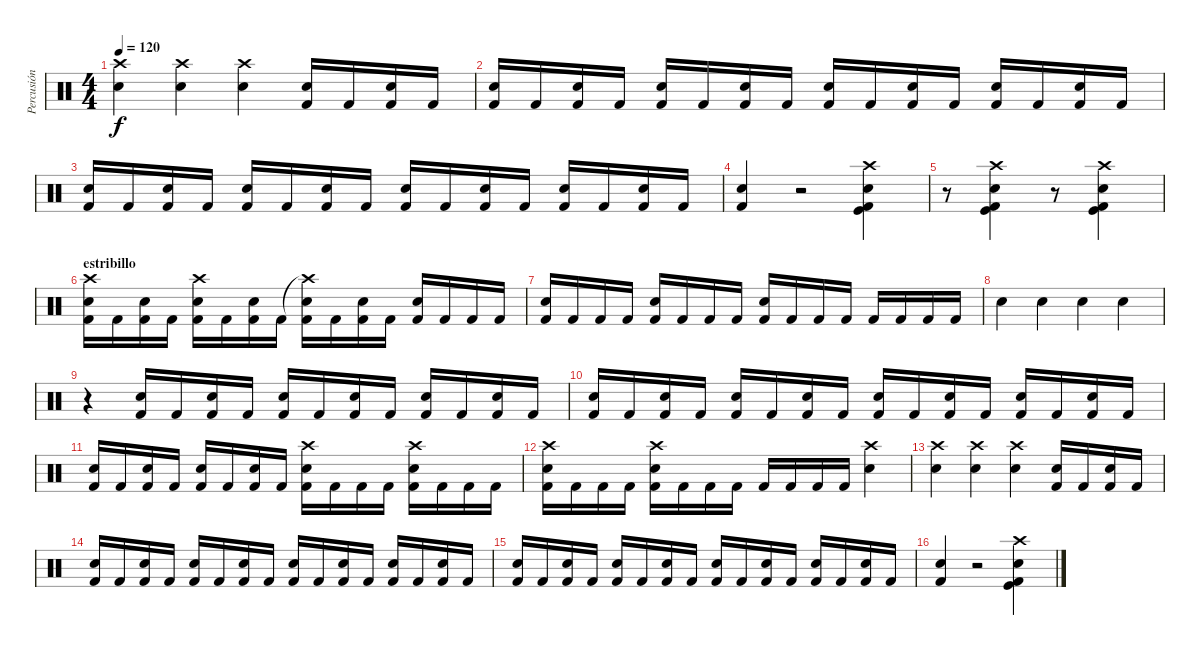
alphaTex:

\track ("Percusión" "Percusión") {instrument percussion}
\staff {score}
\articulation defaults
\ts (4 4)
\tempo 120
\clef neutral
\ks c
("Crash high (hit)" "Electric Snare (hit)").4{dy f} ("Crash high (hit)" "Electric Snare (hit)").4 ("Crash high (hit)" "Electric Snare (hit)").4 ("Kick (hit) 2" "Electric Snare (hit)").16 "Kick (hit) 2".16 ("Kick (hit) 2" "Electric Snare (hit)").16 "Kick (hit) 2".16 |
("Kick (hit) 2" "Electric Snare (hit)").16 "Kick (hit) 2".16 ("Kick (hit) 2" "Electric Snare (hit)").16 "Kick (hit) 2".16 ("Kick (hit) 2" "Electric Snare (hit)").16 "Kick (hit) 2".16 ("Kick (hit) 2" "Electric Snare (hit)").16 "Kick (hit) 2".16 ("Kick (hit) 2" "Electric Snare (hit)").16 "Kick (hit) 2".16 ("Kick (hit) 2" "Electric Snare (hit)").16 "Kick (hit) 2".16 ("Kick (hit) 2" "Electric Snare (hit)").16 "Kick (hit) 2".16 ("Kick (hit) 2" "Electric Snare (hit)").16 "Kick (hit) 2".16 |
("Kick (hit) 2" "Electric Snare (hit)").16 "Kick (hit) 2".16 ("Kick (hit) 2" "Electric Snare (hit)").16 "Kick (hit) 2".16 ("Kick (hit) 2" "Electric Snare (hit)").16 "Kick (hit) 2".16 ("Kick (hit) 2" "Electric Snare (hit)").16 "Kick (hit) 2".16 ("Kick (hit) 2" "Electric Snare (hit)").16 "Kick (hit) 2".16 ("Kick (hit) 2" "Electric Snare (hit)").16 "Kick (hit) 2".16 ("Kick (hit) 2" "Electric Snare (hit)").16 "Kick (hit) 2".16 ("Kick (hit) 2" "Electric Snare (hit)").16 "Kick (hit) 2".16 |
("Kick (hit) 2" "Electric Snare (hit)").4 r.2 ("Crash high (hit)" "Kick (hit)" "Kick (hit) 2" "Electric Snare (hit)").4 |
r.8 ("Crash high (hit)" "Kick (hit)" "Kick (hit) 2" "Electric Snare (hit)").4 r.8 ("Crash high (hit)" "Kick (hit)" "Kick (hit) 2" "Electric Snare (hit)").4 |
\section ("" "estribillo")
("Crash high (hit)" "Kick (hit) 2" "Electric Snare (hit)").16 "Kick (hit) 2".16 ("Kick (hit) 2" "Electric Snare (hit)").16 "Kick (hit) 2".16 ("Crash high (hit)" "Kick (hit) 2" "Electric Snare (hit)").16 "Kick (hit) 2".16 ("Kick (hit) 2" "Electric Snare (hit)").16 "Kick (hit) 2".16 ("Crash high (hit)"{t} "Kick (hit) 2" "Electric Snare (hit)").16 "Kick (hit) 2".16 ("Kick (hit) 2" "Electric Snare (hit)").16 "Kick (hit) 2".16 ("Kick (hit) 2" "Electric Snare (hit)").16 "Kick (hit) 2".16 "Kick (hit) 2".16 "Kick (hit) 2".16 |
("Kick (hit) 2" "Electric Snare (hit)").16 "Kick (hit) 2".16 "Kick (hit) 2".16 "Kick (hit) 2".16 ("Kick (hit) 2" "Electric Snare (hit)").16 "Kick (hit) 2".16 "Kick (hit) 2".16 "Kick (hit) 2".16 ("Kick (hit) 2" "Electric Snare (hit)").16 "Kick (hit) 2".16 "Kick (hit) 2".16 "Kick (hit) 2".16 "Kick (hit) 2".16 "Kick (hit) 2".16 "Kick (hit) 2".16 "Kick (hit) 2".16 |
"Electric Snare (hit)".4 "Electric Snare (hit)".4 "Electric Snare (hit)".4 "Electric Snare (hit)".4 |
r.4 ("Kick (hit) 2" "Electric Snare (hit)").16 "Kick (hit) 2".16 ("Kick (hit) 2" "Electric Snare (hit)").16 "Kick (hit) 2".16 ("Kick (hit) 2" "Electric Snare (hit)").16 "Kick (hit) 2".16 ("Kick (hit) 2" "Electric Snare (hit)").16 "Kick (hit) 2".16 ("Kick (hit) 2" "Electric Snare (hit)").16 "Kick (hit) 2".16 ("Kick (hit) 2" "Electric Snare (hit)").16 "Kick (hit) 2".16 |
("Kick (hit) 2" "Electric Snare (hit)").16 "Kick (hit) 2".16 ("Kick (hit) 2" "Electric Snare (hit)").16 "Kick (hit) 2".16 ("Kick (hit) 2" "Electric Snare (hit)").16 "Kick (hit) 2".16 ("Kick (hit) 2" "Electric Snare (hit)").16 "Kick (hit) 2".16 ("Kick (hit) 2" "Electric Snare (hit)").16 "Kick (hit) 2".16 ("Kick (hit) 2" "Electric Snare (hit)").16 "Kick (hit) 2".16 ("Kick (hit) 2" "Electric Snare (hit)").16 "Kick (hit) 2".16 ("Kick (hit) 2" "Electric Snare (hit)").16 "Kick (hit) 2".16 |
("Kick (hit) 2" "Electric Snare (hit)").16 "Kick (hit) 2".16 ("Kick (hit) 2" "Electric Snare (hit)").16 "Kick (hit) 2".16 ("Kick (hit) 2" "Electric Snare (hit)").16 "Kick (hit) 2".16 ("Kick (hit) 2" "Electric Snare (hit)").16 "Kick (hit) 2".16 ("Crash high (hit)" "Kick (hit) 2" "Electric Snare (hit)").16 "Kick (hit) 2".16 "Kick (hit) 2".16 "Kick (hit) 2".16 ("Crash high (hit)" "Kick (hit) 2" "Electric Snare (hit)").16 "Kick (hit) 2".16 "Kick (hit) 2".16 "Kick (hit) 2".16 |
("Crash high (hit)" "Kick (hit) 2" "Electric Snare (hit)").16 "Kick (hit) 2".16 "Kick (hit) 2".16 "Kick (hit) 2".16 ("Crash high (hit)" "Kick (hit) 2" "Electric Snare (hit)").16 "Kick (hit) 2".16 "Kick (hit) 2".16 "Kick (hit) 2".16 "Kick (hit) 2".16 "Kick (hit) 2".16 "Kick (hit) 2".16 "Kick (hit) 2".16 ("Crash high (hit)" "Electric Snare (hit)").4 |
("Crash high (hit)" "Electric Snare (hit)").4 ("Crash high (hit)" "Electric Snare (hit)").4 ("Crash high (hit)" "Electric Snare (hit)").4 ("Kick (hit) 2" "Electric Snare (hit)").16 "Kick (hit) 2".16 ("Kick (hit) 2" "Electric Snare (hit)").16 "Kick (hit) 2".16 |
("Kick (hit) 2" "Electric Snare (hit)").16 "Kick (hit) 2".16 ("Kick (hit) 2" "Electric Snare (hit)").16 "Kick (hit) 2".16 ("Kick (hit) 2" "Electric Snare (hit)").16 "Kick (hit) 2".16 ("Kick (hit) 2" "Electric Snare (hit)").16 "Kick (hit) 2".16 ("Kick (hit) 2" "Electric Snare (hit)").16 "Kick (hit) 2".16 ("Kick (hit) 2" "Electric Snare (hit)").16 "Kick (hit) 2".16 ("Kick (hit) 2" "Electric Snare (hit)").16 "Kick (hit) 2".16 ("Kick (hit) 2" "Electric Snare (hit)").16 "Kick (hit) 2".16 |
("Kick (hit) 2" "Electric Snare (hit)").16 "Kick (hit) 2".16 ("Kick (hit) 2" "Electric Snare (hit)").16 "Kick (hit) 2".16 ("Kick (hit) 2" "Electric Snare (hit)").16 "Kick (hit) 2".16 ("Kick (hit) 2" "Electric Snare (hit)").16 "Kick (hit) 2".16 ("Kick (hit) 2" "Electric Snare (hit)").16 "Kick (hit) 2".16 ("Kick (hit) 2" "Electric Snare (hit)").16 "Kick (hit) 2".16 ("Kick (hit) 2" "Electric Snare (hit)").16 "Kick (hit) 2".16 ("Kick (hit) 2" "Electric Snare (hit)").16 "Kick (hit) 2".16 |
("Kick (hit) 2" "Electric Snare (hit)").4 r.2 ("Crash high (hit)" "Kick (hit)" "Kick (hit) 2" "Electric Snare (hit)").4
